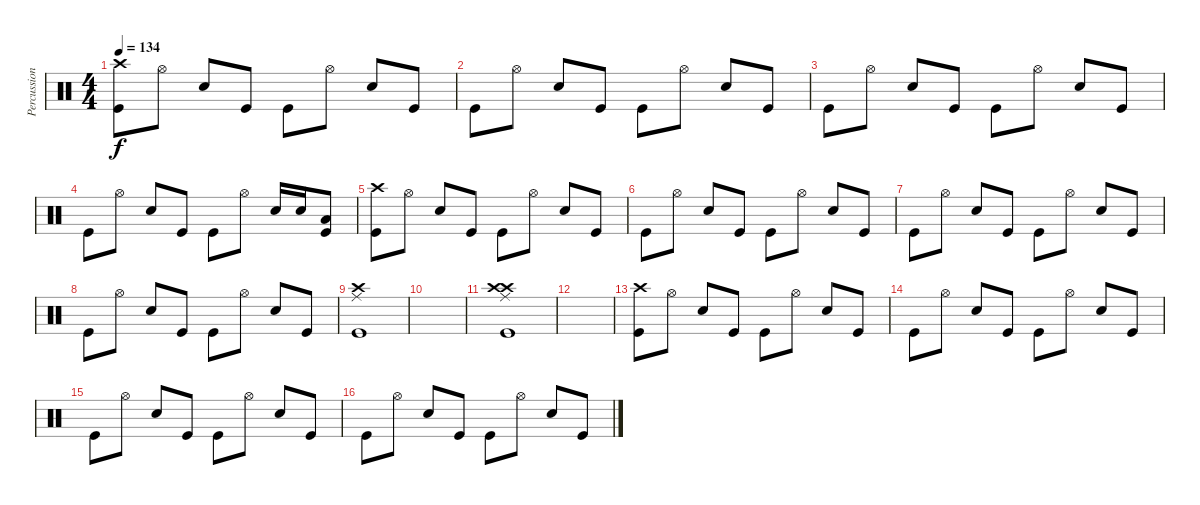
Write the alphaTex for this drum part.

\track ("Percussion" "Percussion") {instrument percussion}
\staff {score}
\articulation defaults
\ts (4 4)
\tempo 134
\clef neutral
\ks c
("Crash high (hit)" "Kick (hit)").8{dy f} "Hi-Hat (open)".8 "Electric Snare (hit)".8 "Kick (hit)".8 "Kick (hit)".8 "Hi-Hat (open)".8 "Electric Snare (hit)".8 "Kick (hit)".8 |
"Kick (hit)".8 "Hi-Hat (open)".8 "Electric Snare (hit)".8 "Kick (hit)".8 "Kick (hit)".8 "Hi-Hat (open)".8 "Electric Snare (hit)".8 "Kick (hit)".8 |
"Kick (hit)".8 "Hi-Hat (open)".8 "Electric Snare (hit)".8 "Kick (hit)".8 "Kick (hit)".8 "Hi-Hat (open)".8 "Electric Snare (hit)".8 "Kick (hit)".8 |
"Kick (hit)".8 "Hi-Hat (open)".8 "Electric Snare (hit)".8 "Kick (hit)".8 "Kick (hit)".8 "Hi-Hat (open)".8 "Electric Snare (hit)".16 "Electric Snare (hit)".16 ("Low Tom (hit)" "Kick (hit)").8 |
("Crash high (hit)" "Kick (hit)").8 "Hi-Hat (open)".8 "Electric Snare (hit)".8 "Kick (hit)".8 "Kick (hit)".8 "Hi-Hat (open)".8 "Electric Snare (hit)".8 "Kick (hit)".8 |
"Kick (hit)".8 "Hi-Hat (open)".8 "Electric Snare (hit)".8 "Kick (hit)".8 "Kick (hit)".8 "Hi-Hat (open)".8 "Electric Snare (hit)".8 "Kick (hit)".8 |
"Kick (hit)".8 "Hi-Hat (open)".8 "Electric Snare (hit)".8 "Kick (hit)".8 "Kick (hit)".8 "Hi-Hat (open)".8 "Electric Snare (hit)".8 "Kick (hit)".8 |
"Kick (hit)".8 "Hi-Hat (open)".8 "Electric Snare (hit)".8 "Kick (hit)".8 "Kick (hit)".8 "Hi-Hat (open)".8 "Electric Snare (hit)".8 "Kick (hit)".8 |
("Crash high (hit)" "Ride (middle)" "Kick (hit)").1 |
|
("Crash high (hit)" "Crash high (hit)" "Ride (middle)" "Kick (hit)").1 |
|
("Crash high (hit)" "Kick (hit)").8 "Hi-Hat (open)".8 "Electric Snare (hit)".8 "Kick (hit)".8 "Kick (hit)".8 "Hi-Hat (open)".8 "Electric Snare (hit)".8 "Kick (hit)".8 |
"Kick (hit)".8 "Hi-Hat (open)".8 "Electric Snare (hit)".8 "Kick (hit)".8 "Kick (hit)".8 "Hi-Hat (open)".8 "Electric Snare (hit)".8 "Kick (hit)".8 |
"Kick (hit)".8 "Hi-Hat (open)".8 "Electric Snare (hit)".8 "Kick (hit)".8 "Kick (hit)".8 "Hi-Hat (open)".8 "Electric Snare (hit)".8 "Kick (hit)".8 |
"Kick (hit)".8 "Hi-Hat (open)".8 "Electric Snare (hit)".8 "Kick (hit)".8 "Kick (hit)".8 "Hi-Hat (open)".8 "Electric Snare (hit)".8 "Kick (hit)".8
